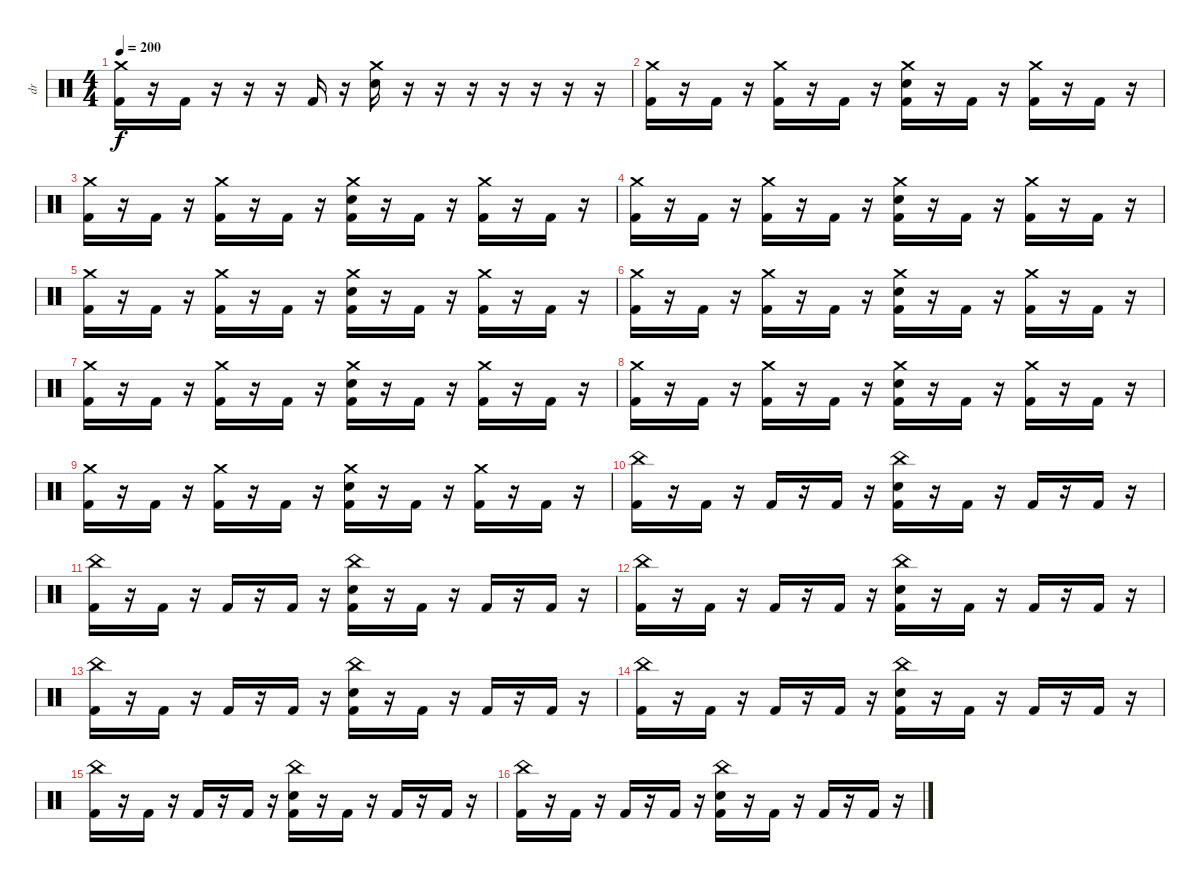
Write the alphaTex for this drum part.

\track ("dr" "dr") {instrument percussion}
\staff {score}
\articulation defaults
\ts (4 4)
\tempo 200
\clef neutral
\ks c
("Crash medium (hit)" "Kick (hit) 2").16{dy f} r.16 "Kick (hit) 2".16 r.16 r.16 r.16 "Kick (hit) 2".16 r.16 ("Crash medium (hit)" "Electric Snare (hit)").16 r.16 r.16 r.16 r.16 r.16 r.16 r.16 |
("Crash medium (hit)" "Kick (hit) 2").16 r.16 "Kick (hit) 2".16 r.16 ("Crash medium (hit)" "Kick (hit) 2").16 r.16 "Kick (hit) 2".16 r.16 ("Crash medium (hit)" "Electric Snare (hit)" "Kick (hit) 2").16 r.16 "Kick (hit) 2".16 r.16 ("Crash medium (hit)" "Kick (hit) 2").16 r.16 "Kick (hit) 2".16 r.16 |
("Crash medium (hit)" "Kick (hit) 2").16 r.16 "Kick (hit) 2".16 r.16 ("Crash medium (hit)" "Kick (hit) 2").16 r.16 "Kick (hit) 2".16 r.16 ("Crash medium (hit)" "Electric Snare (hit)" "Kick (hit) 2").16 r.16 "Kick (hit) 2".16 r.16 ("Crash medium (hit)" "Kick (hit) 2").16 r.16 "Kick (hit) 2".16 r.16 |
("Crash medium (hit)" "Kick (hit) 2").16 r.16 "Kick (hit) 2".16 r.16 ("Crash medium (hit)" "Kick (hit) 2").16 r.16 "Kick (hit) 2".16 r.16 ("Crash medium (hit)" "Electric Snare (hit)" "Kick (hit) 2").16 r.16 "Kick (hit) 2".16 r.16 ("Crash medium (hit)" "Kick (hit) 2").16 r.16 "Kick (hit) 2".16 r.16 |
("Crash medium (hit)" "Kick (hit) 2").16 r.16 "Kick (hit) 2".16 r.16 ("Crash medium (hit)" "Kick (hit) 2").16 r.16 "Kick (hit) 2".16 r.16 ("Crash medium (hit)" "Electric Snare (hit)" "Kick (hit) 2").16 r.16 "Kick (hit) 2".16 r.16 ("Crash medium (hit)" "Kick (hit) 2").16 r.16 "Kick (hit) 2".16 r.16 |
("Crash medium (hit)" "Kick (hit) 2").16 r.16 "Kick (hit) 2".16 r.16 ("Crash medium (hit)" "Kick (hit) 2").16 r.16 "Kick (hit) 2".16 r.16 ("Crash medium (hit)" "Electric Snare (hit)" "Kick (hit) 2").16 r.16 "Kick (hit) 2".16 r.16 ("Crash medium (hit)" "Kick (hit) 2").16 r.16 "Kick (hit) 2".16 r.16 |
("Crash medium (hit)" "Kick (hit) 2").16 r.16 "Kick (hit) 2".16 r.16 ("Crash medium (hit)" "Kick (hit) 2").16 r.16 "Kick (hit) 2".16 r.16 ("Crash medium (hit)" "Electric Snare (hit)" "Kick (hit) 2").16 r.16 "Kick (hit) 2".16 r.16 ("Crash medium (hit)" "Kick (hit) 2").16 r.16 "Kick (hit) 2".16 r.16 |
("Crash medium (hit)" "Kick (hit) 2").16 r.16 "Kick (hit) 2".16 r.16 ("Crash medium (hit)" "Kick (hit) 2").16 r.16 "Kick (hit) 2".16 r.16 ("Crash medium (hit)" "Electric Snare (hit)" "Kick (hit) 2").16 r.16 "Kick (hit) 2".16 r.16 ("Crash medium (hit)" "Kick (hit) 2").16 r.16 "Kick (hit) 2".16 r.16 |
("Crash medium (hit)" "Kick (hit) 2").16 r.16 "Kick (hit) 2".16 r.16 ("Crash medium (hit)" "Kick (hit) 2").16 r.16 "Kick (hit) 2".16 r.16 ("Crash medium (hit)" "Electric Snare (hit)" "Kick (hit) 2").16 r.16 "Kick (hit) 2".16 r.16 ("Crash medium (hit)" "Kick (hit) 2").16 r.16 "Kick (hit) 2".16 r.16 |
("China (hit)" "Kick (hit) 2").16 r.16 "Kick (hit) 2".16 r.16 "Kick (hit) 2".16 r.16 "Kick (hit) 2".16 r.16 ("China (hit)" "Electric Snare (hit)" "Kick (hit) 2").16 r.16 "Kick (hit) 2".16 r.16 "Kick (hit) 2".16 r.16 "Kick (hit) 2".16 r.16 |
("China (hit)" "Kick (hit) 2").16 r.16 "Kick (hit) 2".16 r.16 "Kick (hit) 2".16 r.16 "Kick (hit) 2".16 r.16 ("China (hit)" "Electric Snare (hit)" "Kick (hit) 2").16 r.16 "Kick (hit) 2".16 r.16 "Kick (hit) 2".16 r.16 "Kick (hit) 2".16 r.16 |
("China (hit)" "Kick (hit) 2").16 r.16 "Kick (hit) 2".16 r.16 "Kick (hit) 2".16 r.16 "Kick (hit) 2".16 r.16 ("China (hit)" "Electric Snare (hit)" "Kick (hit) 2").16 r.16 "Kick (hit) 2".16 r.16 "Kick (hit) 2".16 r.16 "Kick (hit) 2".16 r.16 |
("China (hit)" "Kick (hit) 2").16 r.16 "Kick (hit) 2".16 r.16 "Kick (hit) 2".16 r.16 "Kick (hit) 2".16 r.16 ("China (hit)" "Electric Snare (hit)" "Kick (hit) 2").16 r.16 "Kick (hit) 2".16 r.16 "Kick (hit) 2".16 r.16 "Kick (hit) 2".16 r.16 |
("China (hit)" "Kick (hit) 2").16 r.16 "Kick (hit) 2".16 r.16 "Kick (hit) 2".16 r.16 "Kick (hit) 2".16 r.16 ("China (hit)" "Electric Snare (hit)" "Kick (hit) 2").16 r.16 "Kick (hit) 2".16 r.16 "Kick (hit) 2".16 r.16 "Kick (hit) 2".16 r.16 |
("China (hit)" "Kick (hit) 2").16 r.16 "Kick (hit) 2".16 r.16 "Kick (hit) 2".16 r.16 "Kick (hit) 2".16 r.16 ("China (hit)" "Electric Snare (hit)" "Kick (hit) 2").16 r.16 "Kick (hit) 2".16 r.16 "Kick (hit) 2".16 r.16 "Kick (hit) 2".16 r.16 |
("China (hit)" "Kick (hit) 2").16 r.16 "Kick (hit) 2".16 r.16 "Kick (hit) 2".16 r.16 "Kick (hit) 2".16 r.16 ("China (hit)" "Electric Snare (hit)" "Kick (hit) 2").16 r.16 "Kick (hit) 2".16 r.16 "Kick (hit) 2".16 r.16 "Kick (hit) 2".16 r.16
